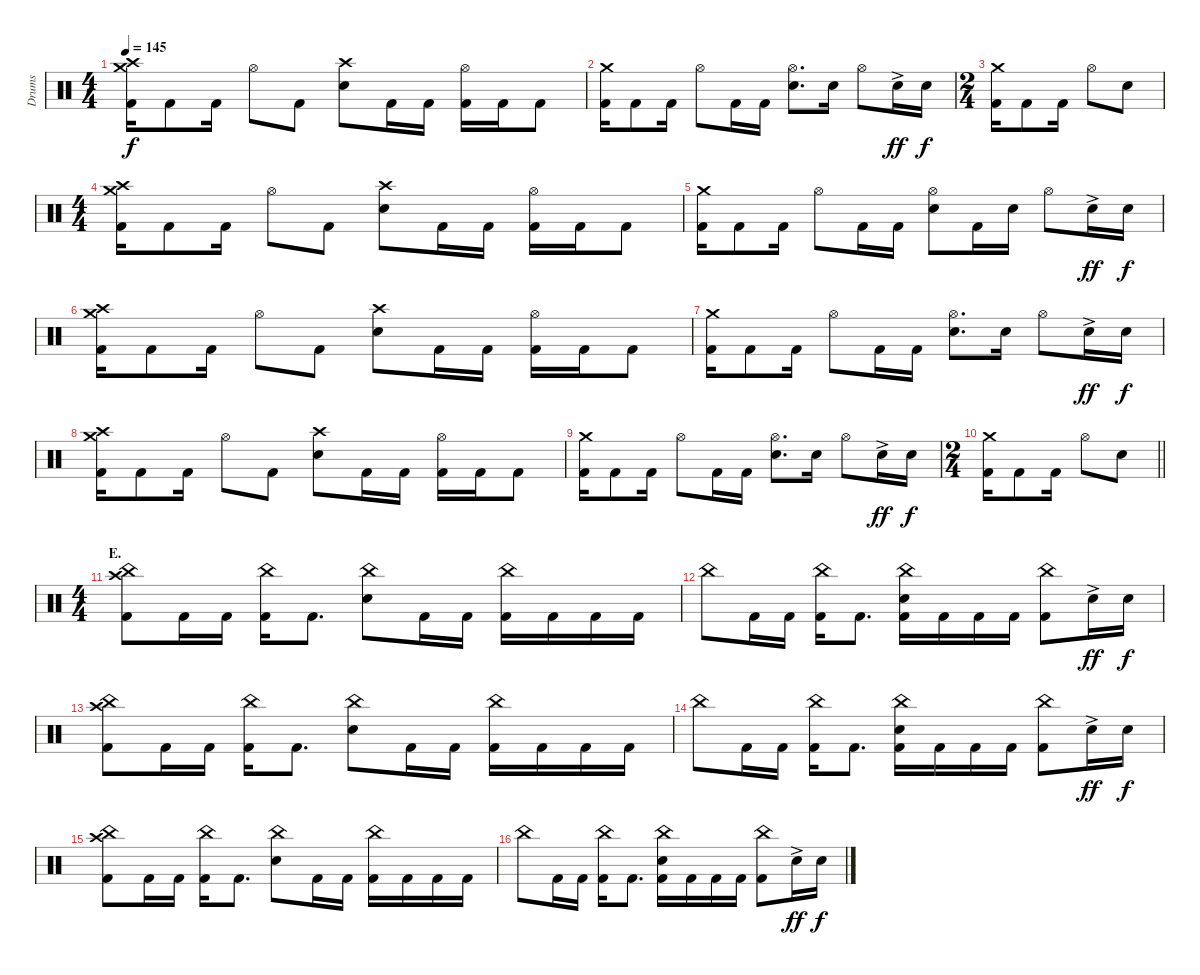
\track ("Drums" "Drums") {instrument percussion}
\staff {score}
\articulation defaults
\ts (4 4)
\tempo 145
\clef neutral
\ks c
("Crash medium (hit)" "Crash high (hit)" "Kick (hit) 2").16{dy f} "Kick (hit) 2".8 "Kick (hit) 2".16 "Hi-Hat (open)".8 "Kick (hit) 2".8 ("Crash high (hit)" "Electric Snare (hit)").8 "Kick (hit) 2".16 "Kick (hit) 2".16 ("Hi-Hat (open)" "Kick (hit) 2").16 "Kick (hit) 2".16 "Kick (hit) 2".8 |
("Crash medium (hit)" "Kick (hit) 2").16 "Kick (hit) 2".8 "Kick (hit) 2".16 "Hi-Hat (open)".8 "Kick (hit) 2".16 "Kick (hit) 2".16 ("Hi-Hat (open)" "Electric Snare (hit)").8{d} "Electric Snare (hit)".16 "Hi-Hat (open)".8 "Electric Snare (hit)"{ac}.16{dy ff} "Electric Snare (hit)".16{dy f} |
\ts (2 4)
("Crash medium (hit)" "Kick (hit) 2").16 "Kick (hit) 2".8 "Kick (hit) 2".16 "Hi-Hat (open)".8 "Electric Snare (hit)".8 |
\ts (4 4)
("Crash medium (hit)" "Crash high (hit)" "Kick (hit) 2").16 "Kick (hit) 2".8 "Kick (hit) 2".16 "Hi-Hat (open)".8 "Kick (hit) 2".8 ("Crash high (hit)" "Electric Snare (hit)").8 "Kick (hit) 2".16 "Kick (hit) 2".16 ("Hi-Hat (open)" "Kick (hit) 2").16 "Kick (hit) 2".16 "Kick (hit) 2".8 |
("Crash medium (hit)" "Kick (hit) 2").16 "Kick (hit) 2".8 "Kick (hit) 2".16 "Hi-Hat (open)".8 "Kick (hit) 2".16 "Kick (hit) 2".16 ("Hi-Hat (open)" "Electric Snare (hit)").8 "Kick (hit) 2".16 "Electric Snare (hit)".16 "Hi-Hat (open)".8 "Electric Snare (hit)"{ac}.16{dy ff} "Electric Snare (hit)".16{dy f} |
("Crash medium (hit)" "Crash high (hit)" "Kick (hit) 2").16 "Kick (hit) 2".8 "Kick (hit) 2".16 "Hi-Hat (open)".8 "Kick (hit) 2".8 ("Crash high (hit)" "Electric Snare (hit)").8 "Kick (hit) 2".16 "Kick (hit) 2".16 ("Hi-Hat (open)" "Kick (hit) 2").16 "Kick (hit) 2".16 "Kick (hit) 2".8 |
("Crash medium (hit)" "Kick (hit) 2").16 "Kick (hit) 2".8 "Kick (hit) 2".16 "Hi-Hat (open)".8 "Kick (hit) 2".16 "Kick (hit) 2".16 ("Hi-Hat (open)" "Electric Snare (hit)").8{d} "Electric Snare (hit)".16 "Hi-Hat (open)".8 "Electric Snare (hit)"{ac}.16{dy ff} "Electric Snare (hit)".16{dy f} |
("Crash medium (hit)" "Crash high (hit)" "Kick (hit) 2").16 "Kick (hit) 2".8 "Kick (hit) 2".16 "Hi-Hat (open)".8 "Kick (hit) 2".8 ("Crash high (hit)" "Electric Snare (hit)").8 "Kick (hit) 2".16 "Kick (hit) 2".16 ("Hi-Hat (open)" "Kick (hit) 2").16 "Kick (hit) 2".16 "Kick (hit) 2".8 |
("Crash medium (hit)" "Kick (hit) 2").16 "Kick (hit) 2".8 "Kick (hit) 2".16 "Hi-Hat (open)".8 "Kick (hit) 2".16 "Kick (hit) 2".16 ("Hi-Hat (open)" "Electric Snare (hit)").8{d} "Electric Snare (hit)".16 "Hi-Hat (open)".8 "Electric Snare (hit)"{ac}.16{dy ff} "Electric Snare (hit)".16{dy f} |
\ts (2 4)
\barLineRight lightlight
("Crash medium (hit)" "Kick (hit) 2").16 "Kick (hit) 2".8 "Kick (hit) 2".16 "Hi-Hat (open)".8 "Electric Snare (hit)".8 |
\ts (4 4)
\section ("" "E.")
("China (hit)" "Crash high (hit)" "Kick (hit) 2").8 "Kick (hit) 2".16 "Kick (hit) 2".16 ("China (hit)" "Kick (hit) 2").16 "Kick (hit) 2".8{d} ("China (hit)" "Electric Snare (hit)").8 "Kick (hit) 2".16 "Kick (hit) 2".16 ("China (hit)" "Kick (hit) 2").16 "Kick (hit) 2".16 "Kick (hit) 2".16 "Kick (hit) 2".16 |
"China (hit)".8 "Kick (hit) 2".16 "Kick (hit) 2".16 ("China (hit)" "Kick (hit) 2").16 "Kick (hit) 2".8{d} ("China (hit)" "Electric Snare (hit)" "Kick (hit) 2").16 "Kick (hit) 2".16 "Kick (hit) 2".16 "Kick (hit) 2".16 ("China (hit)" "Kick (hit) 2").8 "Electric Snare (hit)"{ac}.16{dy ff} "Electric Snare (hit)".16{dy f} |
("China (hit)" "Crash high (hit)" "Kick (hit) 2").8 "Kick (hit) 2".16 "Kick (hit) 2".16 ("China (hit)" "Kick (hit) 2").16 "Kick (hit) 2".8{d} ("China (hit)" "Electric Snare (hit)").8 "Kick (hit) 2".16 "Kick (hit) 2".16 ("China (hit)" "Kick (hit) 2").16 "Kick (hit) 2".16 "Kick (hit) 2".16 "Kick (hit) 2".16 |
"China (hit)".8 "Kick (hit) 2".16 "Kick (hit) 2".16 ("China (hit)" "Kick (hit) 2").16 "Kick (hit) 2".8{d} ("China (hit)" "Electric Snare (hit)" "Kick (hit) 2").16 "Kick (hit) 2".16 "Kick (hit) 2".16 "Kick (hit) 2".16 ("China (hit)" "Kick (hit) 2").8 "Electric Snare (hit)"{ac}.16{dy ff} "Electric Snare (hit)".16{dy f} |
("China (hit)" "Crash high (hit)" "Kick (hit) 2").8 "Kick (hit) 2".16 "Kick (hit) 2".16 ("China (hit)" "Kick (hit) 2").16 "Kick (hit) 2".8{d} ("China (hit)" "Electric Snare (hit)").8 "Kick (hit) 2".16 "Kick (hit) 2".16 ("China (hit)" "Kick (hit) 2").16 "Kick (hit) 2".16 "Kick (hit) 2".16 "Kick (hit) 2".16 |
"China (hit)".8 "Kick (hit) 2".16 "Kick (hit) 2".16 ("China (hit)" "Kick (hit) 2").16 "Kick (hit) 2".8{d} ("China (hit)" "Electric Snare (hit)" "Kick (hit) 2").16 "Kick (hit) 2".16 "Kick (hit) 2".16 "Kick (hit) 2".16 ("China (hit)" "Kick (hit) 2").8 "Electric Snare (hit)"{ac}.16{dy ff} "Electric Snare (hit)".16{dy f}
